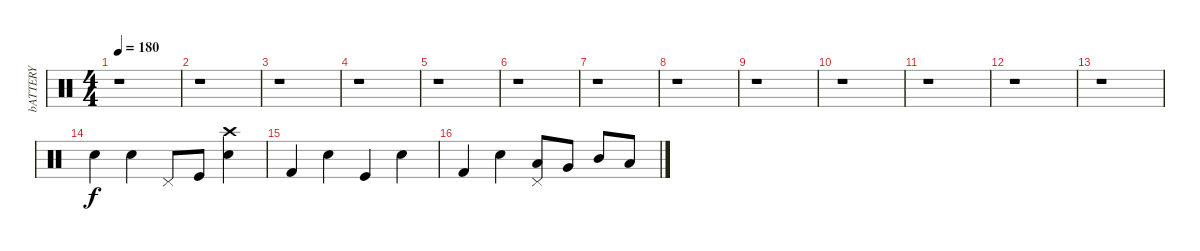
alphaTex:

\track ("bATTERY" "bATTERY") {instrument percussion}
\staff {score}
\articulation defaults
\ts (4 4)
\tempo 180
\clef neutral
\ks c
r.1{dy f} |
r.1 |
r.1 |
r.1 |
r.1 |
r.1 |
r.1 |
r.1 |
r.1 |
r.1 |
r.1 |
r.1 |
r.1 |
"Electric Snare (hit)".4 "Electric Snare (hit)".4 "Pedal Hi-Hat (hit)".8 "Kick (hit)".8 ("Snare (hit) 2" "Crash high (hit)").4 |
"Kick (hit) 2".4 "Electric Snare (hit)".4 "Kick (hit)".4 "Electric Snare (hit)".4 |
"Kick (hit) 2".4 "Electric Snare (hit)".4 ("Pedal Hi-Hat (hit)" "Low Tom (hit)").8 "Very Low Tom (hit)".8 "Mid Tom (hit)".8 "Low Floor Tom (hit)".8
